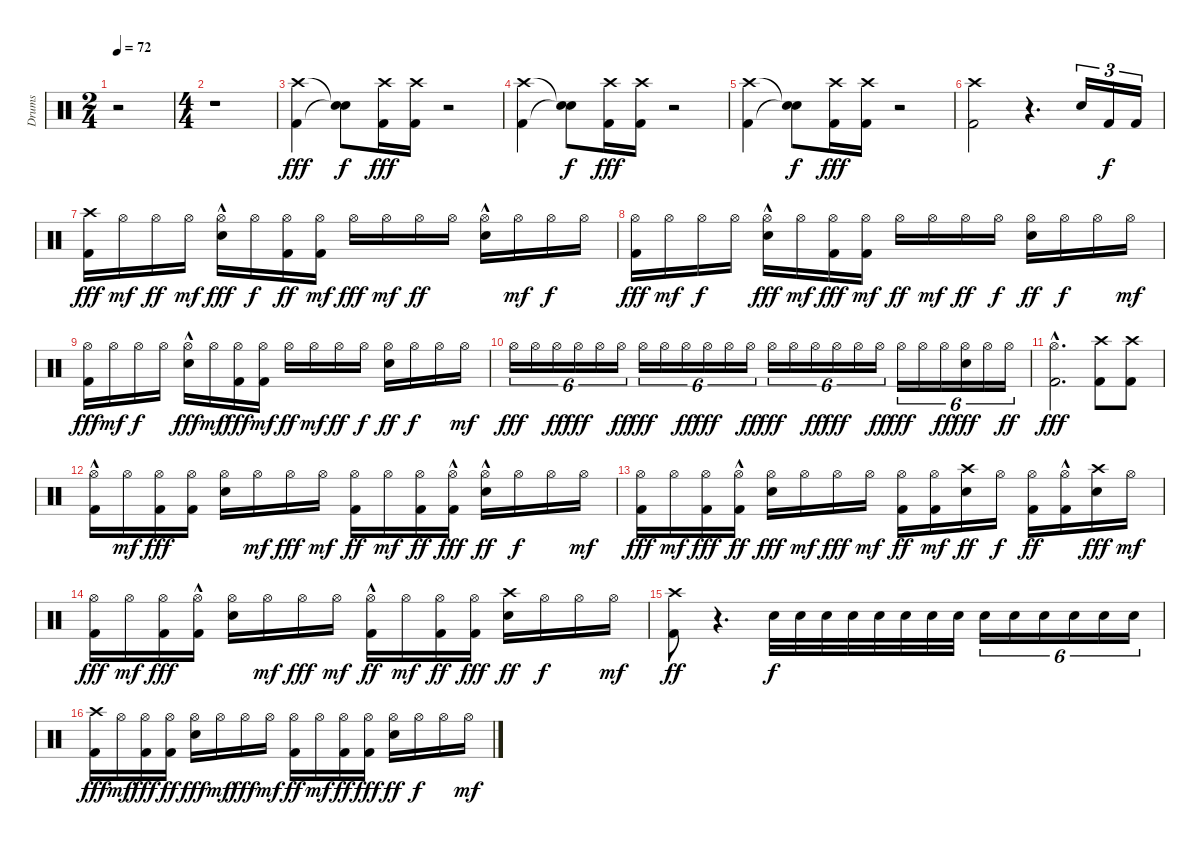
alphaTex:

\track ("Drums" "Drums") {instrument percussion}
\staff {score}
\articulation defaults
\ts (2 4)
\tempo 72
\clef neutral
\ks c
r.2{dy fff} |
\ts (4 4)
r.1 |
("Kick (hit) 2" "Crash high (hit)").4 ("Snare (hit)"{t} "Snare (hit)"{t}).8{dy f} ("Kick (hit) 2" "Crash high (hit)").16{dy fff} ("Kick (hit) 2" "Crash high (hit)").16 r.2 |
("Kick (hit) 2" "Crash high (hit)").4 ("Snare (hit)"{t} "Snare (hit)"{t}).8{dy f} ("Kick (hit) 2" "Crash high (hit)").16{dy fff} ("Kick (hit) 2" "Crash high (hit)").16 r.2 |
("Kick (hit) 2" "Crash high (hit)").4 ("Snare (hit)"{t} "Snare (hit)"{t}).8{dy f} ("Kick (hit) 2" "Crash high (hit)").16{dy fff} ("Kick (hit) 2" "Crash high (hit)").16 r.2 |
("Kick (hit) 2" "Crash high (hit)").2 r.4{d} "Snare (hit) 2".16{tu (3 2)} "Kick (hit) 2".16{tu (3 2) dy f} "Kick (hit) 2".16{tu (3 2)} |
("Kick (hit) 2" "Crash high (hit)").16{dy fff} "Hi-Hat (open)".16{dy mf} "Hi-Hat (open)".16{dy ff} "Hi-Hat (open)".16{dy mf} ("Snare (hit) 2"{hac} "Hi-Hat (open)").16{dy fff} "Hi-Hat (open)".16{dy f} ("Kick (hit) 2" "Hi-Hat (open)").16{dy ff} ("Kick (hit) 2" "Hi-Hat (open)").16{dy mf} "Hi-Hat (open)".16{dy fff} "Hi-Hat (open)".16{dy mf} "Hi-Hat (open)".16{dy ff} "Hi-Hat (open)".16 ("Snare (hit) 2"{hac} "Hi-Hat (open)").16 "Hi-Hat (open)".16{dy mf} "Hi-Hat (open)".16{dy f} "Hi-Hat (open)".16 |
("Kick (hit) 2" "Hi-Hat (open)").16{dy fff} "Hi-Hat (open)".16{dy mf} "Hi-Hat (open)".16{dy f} "Hi-Hat (open)".16 ("Snare (hit) 2"{hac} "Hi-Hat (open)").16{dy fff} "Hi-Hat (open)".16{dy mf} ("Kick (hit) 2" "Hi-Hat (open)").16{dy fff} ("Kick (hit) 2" "Hi-Hat (open)").16{dy mf} "Hi-Hat (open)".16{dy ff} "Hi-Hat (open)".16{dy mf} "Hi-Hat (open)".16{dy ff} "Hi-Hat (open)".16{dy f} ("Snare (hit) 2" "Hi-Hat (open)").16{dy ff} "Hi-Hat (open)".16{dy f} "Hi-Hat (open)".16 "Hi-Hat (open)".16{dy mf} |
("Kick (hit) 2" "Hi-Hat (open)").16{dy fff} "Hi-Hat (open)".16{dy mf} "Hi-Hat (open)".16{dy f} "Hi-Hat (open)".16 ("Snare (hit) 2"{hac} "Hi-Hat (open)").16{dy fff} "Hi-Hat (open)".16{dy mf} ("Kick (hit) 2" "Hi-Hat (open)").16{dy fff} ("Kick (hit) 2" "Hi-Hat (open)").16{dy mf} "Hi-Hat (open)".16{dy ff} "Hi-Hat (open)".16{dy mf} "Hi-Hat (open)".16{dy ff} "Hi-Hat (open)".16{dy f} ("Snare (hit) 2" "Hi-Hat (open)").16{dy ff} "Hi-Hat (open)".16{dy f} "Hi-Hat (open)".16 "Hi-Hat (open)".16{dy mf} |
"Hi-Hat (open)".16{tu (6 4) dy fff} "Hi-Hat (open)".16{tu (6 4)} "Hi-Hat (open)".16{tu (6 4) dy ff} "Hi-Hat (open)".16{tu (6 4) dy fff} "Hi-Hat (open)".16{tu (6 4)} "Hi-Hat (open)".16{tu (6 4) dy ff} "Hi-Hat (open)".16{tu (6 4) dy fff} "Hi-Hat (open)".16{tu (6 4)} "Hi-Hat (open)".16{tu (6 4) dy ff} "Hi-Hat (open)".16{tu (6 4) dy fff} "Hi-Hat (open)".16{tu (6 4)} "Hi-Hat (open)".16{tu (6 4) dy ff} "Hi-Hat (open)".16{tu (6 4) dy fff} "Hi-Hat (open)".16{tu (6 4)} "Hi-Hat (open)".16{tu (6 4) dy ff} "Hi-Hat (open)".16{tu (6 4) dy fff} "Hi-Hat (open)".16{tu (6 4)} "Hi-Hat (open)".16{tu (6 4) dy ff} "Hi-Hat (open)".16{tu (6 4) dy fff} "Hi-Hat (open)".16{tu (6 4)} "Hi-Hat (open)".16{tu (6 4) dy ff} ("Hi-Hat (open)" "Snare (hit) 2").16{tu (6 4) dy fff} "Hi-Hat (open)".16{tu (6 4)} "Hi-Hat (open)".16{tu (6 4) dy ff} |
("Hi-Hat (open)" "Kick (hit) 2"{hac}).2{d dy fff} ("Kick (hit) 2" "Crash high (hit)").8 ("Kick (hit) 2" "Crash high (hit)").8 |
("Kick (hit) 2"{hac} "Hi-Hat (open)").16 "Hi-Hat (open)".16{dy mf} ("Kick (hit) 2" "Hi-Hat (open)").16{dy fff} ("Kick (hit) 2" "Hi-Hat (open)").16 ("Snare (hit) 2" "Hi-Hat (open)").16 "Hi-Hat (open)".16{dy mf} "Hi-Hat (open)".16{dy fff} "Hi-Hat (open)".16{dy mf} ("Kick (hit) 2" "Hi-Hat (open)").16{dy ff} "Hi-Hat (open)".16{dy mf} ("Kick (hit) 2" "Hi-Hat (open)").16{dy ff} ("Kick (hit) 2"{hac} "Hi-Hat (open)").16{dy fff} ("Snare (hit) 2"{hac} "Hi-Hat (open)").16{dy ff} "Hi-Hat (open)".16{dy f} "Hi-Hat (open)".16 "Hi-Hat (open)".16{dy mf} |
("Kick (hit) 2" "Hi-Hat (open)").16{dy fff} "Hi-Hat (open)".16{dy mf} ("Kick (hit) 2" "Hi-Hat (open)").16{dy fff} ("Kick (hit) 2"{hac} "Hi-Hat (open)").16{dy ff} ("Snare (hit) 2" "Hi-Hat (open)").16{dy fff} "Hi-Hat (open)".16{dy mf} "Hi-Hat (open)".16{dy fff} "Hi-Hat (open)".16{dy mf} ("Kick (hit) 2" "Hi-Hat (open)").16{dy ff} ("Kick (hit) 2" "Hi-Hat (open)").16{dy mf} ("Snare (hit) 2" "Crash high (hit)").16{dy ff} "Hi-Hat (open)".16{dy f} ("Kick (hit) 2" "Hi-Hat (open)").16{dy ff} ("Kick (hit) 2"{hac} "Hi-Hat (open)").16 ("Snare (hit) 2" "Crash high (hit)").16{dy fff} "Hi-Hat (open)".16{dy mf} |
("Kick (hit) 2" "Hi-Hat (open)").16{dy fff} "Hi-Hat (open)".16{dy mf} ("Kick (hit) 2" "Hi-Hat (open)").16{dy fff} ("Kick (hit) 2"{hac} "Hi-Hat (open)").16 ("Snare (hit) 2" "Hi-Hat (open)").16 "Hi-Hat (open)".16{dy mf} "Hi-Hat (open)".16{dy fff} "Hi-Hat (open)".16{dy mf} ("Kick (hit) 2"{hac} "Hi-Hat (open)").16{dy ff} "Hi-Hat (open)".16{dy mf} ("Kick (hit) 2" "Hi-Hat (open)").16{dy ff} ("Kick (hit) 2" "Hi-Hat (open)").16{dy fff} ("Snare (hit) 2" "Crash high (hit)").16{dy ff} "Hi-Hat (open)".16{dy f} "Hi-Hat (open)".16 "Hi-Hat (open)".16{dy mf} |
("Kick (hit) 2" "Crash high (hit)").8{dy ff} r.4{d} "Snare (hit) 2".32{dy f} "Snare (hit) 2".32 "Snare (hit) 2".32 "Snare (hit) 2".32 "Snare (hit) 2".32 "Snare (hit) 2".32 "Snare (hit) 2".32 "Snare (hit) 2".32 "Snare (hit) 2".16{tu (6 4)} "Snare (hit) 2".16{tu (6 4)} "Snare (hit) 2".16{tu (6 4)} "Snare (hit) 2".16{tu (6 4)} "Snare (hit) 2".16{tu (6 4)} "Snare (hit) 2".16{tu (6 4)} |
("Kick (hit) 2" "Crash high (hit)").16{dy fff} "Hi-Hat (open)".16{dy mf} ("Kick (hit) 2" "Hi-Hat (open)").16{dy fff} ("Kick (hit) 2" "Hi-Hat (open)").16{dy ff} ("Snare (hit) 2" "Hi-Hat (open)").16{dy fff} "Hi-Hat (open)".16{dy mf} "Hi-Hat (open)".16{dy fff} "Hi-Hat (open)".16{dy mf} ("Kick (hit) 2" "Hi-Hat (open)").16{dy ff} "Hi-Hat (open)".16{dy mf} ("Kick (hit) 2" "Hi-Hat (open)").16{dy ff} ("Kick (hit) 2" "Hi-Hat (open)").16{dy fff} ("Snare (hit) 2" "Hi-Hat (open)").16{dy ff} "Hi-Hat (open)".16{dy f} "Hi-Hat (open)".16 "Hi-Hat (open)".16{dy mf}
